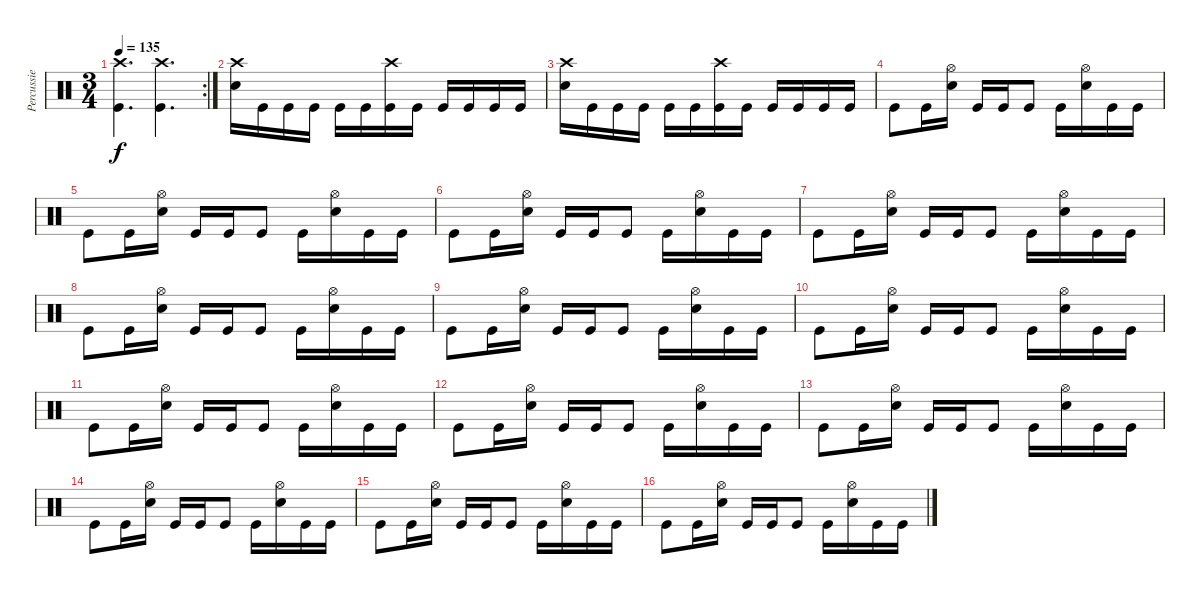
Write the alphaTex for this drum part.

\track ("Percussie" "Percussie") {instrument percussion}
\staff {score}
\articulation defaults
\rc 2
\ts (3 4)
\tempo 135
\clef neutral
\ks c
("Crash high (hit)" "Kick (hit)").4{d dy f} ("Crash high (hit)" "Kick (hit)").4{d} |
("Crash high (hit)" "Snare (hit) 2").16 "Kick (hit)".16 "Kick (hit)".16 "Kick (hit)".16 "Kick (hit)".16 "Kick (hit)".16 ("Crash high (hit)" "Kick (hit)").16 "Kick (hit)".16 "Kick (hit)".16 "Kick (hit)".16 "Kick (hit)".16 "Kick (hit)".16 |
("Crash high (hit)" "Snare (hit) 2").16 "Kick (hit)".16 "Kick (hit)".16 "Kick (hit)".16 "Kick (hit)".16 "Kick (hit)".16 ("Crash high (hit)" "Kick (hit)").16 "Kick (hit)".16 "Kick (hit)".16 "Kick (hit)".16 "Kick (hit)".16 "Kick (hit)".16 |
"Kick (hit)".8 "Kick (hit)".16 ("Hi-Hat (open)" "Snare (hit) 2").16 "Kick (hit)".16 "Kick (hit)".16 "Kick (hit)".8 "Kick (hit)".16 ("Hi-Hat (open)" "Snare (hit) 2").16 "Kick (hit)".16 "Kick (hit)".16 |
"Kick (hit)".8 "Kick (hit)".16 ("Hi-Hat (open)" "Snare (hit) 2").16 "Kick (hit)".16 "Kick (hit)".16 "Kick (hit)".8 "Kick (hit)".16 ("Hi-Hat (open)" "Snare (hit) 2").16 "Kick (hit)".16 "Kick (hit)".16 |
"Kick (hit)".8 "Kick (hit)".16 ("Hi-Hat (open)" "Snare (hit) 2").16 "Kick (hit)".16 "Kick (hit)".16 "Kick (hit)".8 "Kick (hit)".16 ("Hi-Hat (open)" "Snare (hit) 2").16 "Kick (hit)".16 "Kick (hit)".16 |
"Kick (hit)".8 "Kick (hit)".16 ("Hi-Hat (open)" "Snare (hit) 2").16 "Kick (hit)".16 "Kick (hit)".16 "Kick (hit)".8 "Kick (hit)".16 ("Hi-Hat (open)" "Snare (hit) 2").16 "Kick (hit)".16 "Kick (hit)".16 |
"Kick (hit)".8 "Kick (hit)".16 ("Hi-Hat (open)" "Snare (hit) 2").16 "Kick (hit)".16 "Kick (hit)".16 "Kick (hit)".8 "Kick (hit)".16 ("Hi-Hat (open)" "Snare (hit) 2").16 "Kick (hit)".16 "Kick (hit)".16 |
"Kick (hit)".8 "Kick (hit)".16 ("Hi-Hat (open)" "Snare (hit) 2").16 "Kick (hit)".16 "Kick (hit)".16 "Kick (hit)".8 "Kick (hit)".16 ("Hi-Hat (open)" "Snare (hit) 2").16 "Kick (hit)".16 "Kick (hit)".16 |
"Kick (hit)".8 "Kick (hit)".16 ("Hi-Hat (open)" "Snare (hit) 2").16 "Kick (hit)".16 "Kick (hit)".16 "Kick (hit)".8 "Kick (hit)".16 ("Hi-Hat (open)" "Snare (hit) 2").16 "Kick (hit)".16 "Kick (hit)".16 |
"Kick (hit)".8 "Kick (hit)".16 ("Hi-Hat (open)" "Snare (hit) 2").16 "Kick (hit)".16 "Kick (hit)".16 "Kick (hit)".8 "Kick (hit)".16 ("Hi-Hat (open)" "Snare (hit) 2").16 "Kick (hit)".16 "Kick (hit)".16 |
"Kick (hit)".8 "Kick (hit)".16 ("Hi-Hat (open)" "Snare (hit) 2").16 "Kick (hit)".16 "Kick (hit)".16 "Kick (hit)".8 "Kick (hit)".16 ("Hi-Hat (open)" "Snare (hit) 2").16 "Kick (hit)".16 "Kick (hit)".16 |
"Kick (hit)".8 "Kick (hit)".16 ("Hi-Hat (open)" "Snare (hit) 2").16 "Kick (hit)".16 "Kick (hit)".16 "Kick (hit)".8 "Kick (hit)".16 ("Hi-Hat (open)" "Snare (hit) 2").16 "Kick (hit)".16 "Kick (hit)".16 |
"Kick (hit)".8 "Kick (hit)".16 ("Hi-Hat (open)" "Snare (hit) 2").16 "Kick (hit)".16 "Kick (hit)".16 "Kick (hit)".8 "Kick (hit)".16 ("Hi-Hat (open)" "Snare (hit) 2").16 "Kick (hit)".16 "Kick (hit)".16 |
"Kick (hit)".8 "Kick (hit)".16 ("Hi-Hat (open)" "Snare (hit) 2").16 "Kick (hit)".16 "Kick (hit)".16 "Kick (hit)".8 "Kick (hit)".16 ("Hi-Hat (open)" "Snare (hit) 2").16 "Kick (hit)".16 "Kick (hit)".16 |
"Kick (hit)".8 "Kick (hit)".16 ("Hi-Hat (open)" "Snare (hit) 2").16 "Kick (hit)".16 "Kick (hit)".16 "Kick (hit)".8 "Kick (hit)".16 ("Hi-Hat (open)" "Snare (hit) 2").16 "Kick (hit)".16 "Kick (hit)".16
